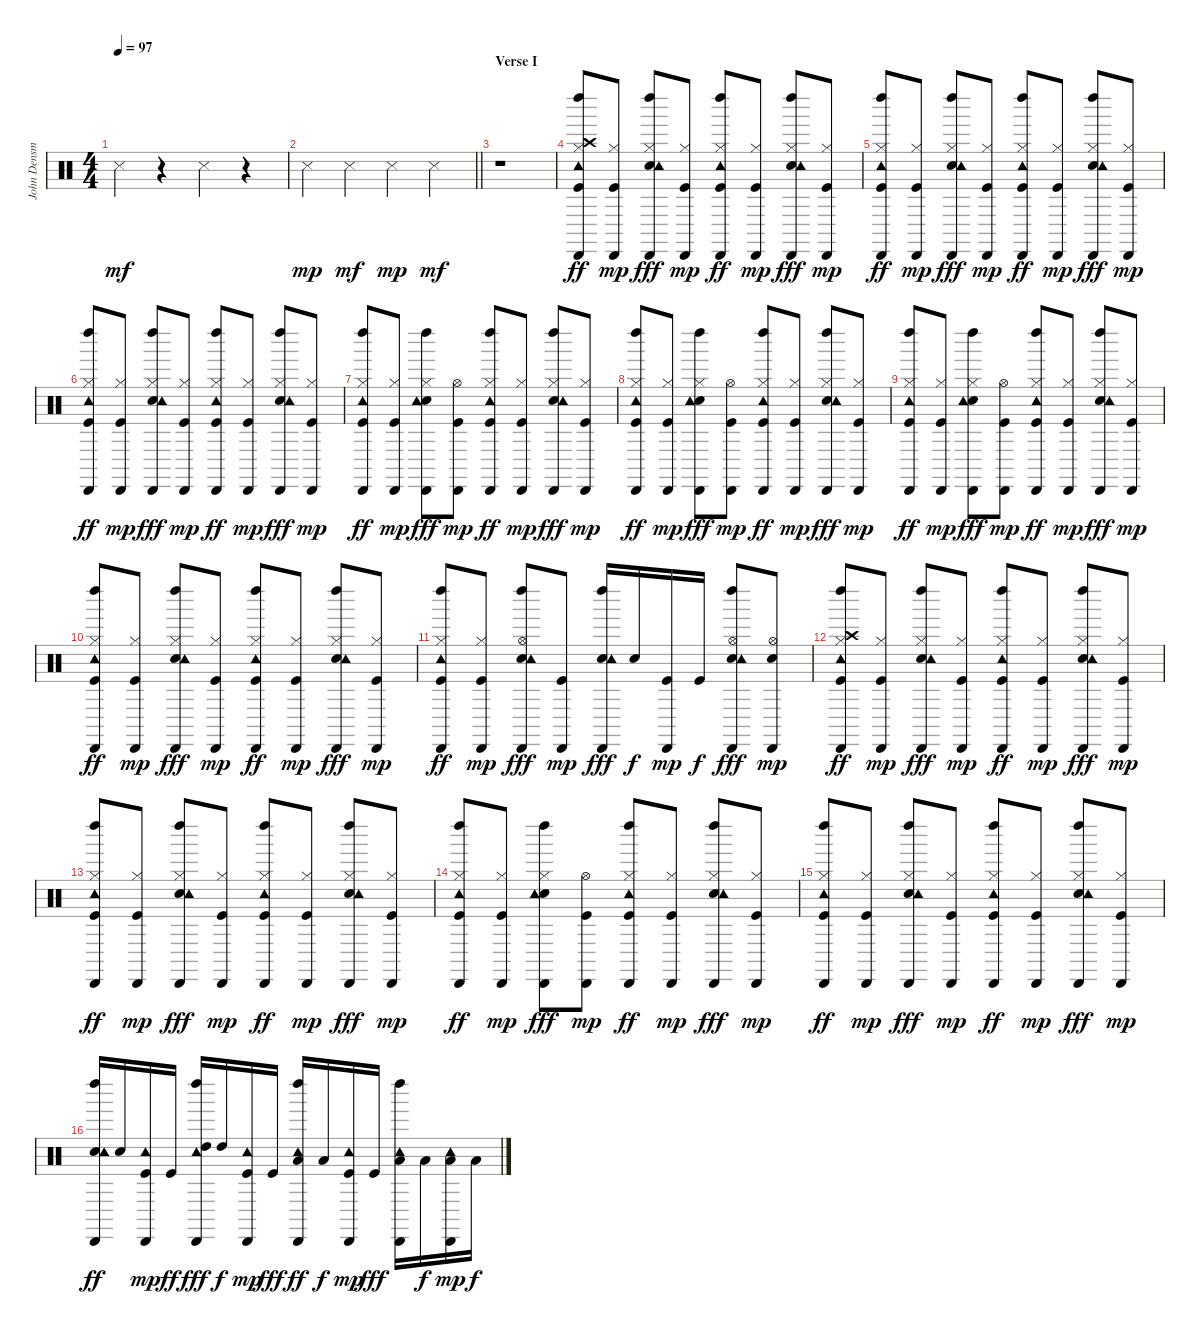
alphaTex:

\track ("John Densmore" "John Densm") {instrument percussion}
\staff {score}
\articulation defaults
\ts (4 4)
\tempo 97
\clef neutral
\ks c "Snare (side stick) 3".4{dy mf}
r.4 "Snare (side stick) 3".4 r.4 |
\barLineRight lightlight "Snare (side stick) 3".4{dy mp} "Snare (side stick) 3".4{dy mf} "Snare (side stick) 3".4{dy mp} "Snare (side stick) 3".4{dy mf}
|
\section ("" "Verse I")
r.1 |
("Kick (hit)" "Hi-Hat (closed)" "Crash high (hit)" "Tambourine (hit)" "Left Maraca (hit)" "Cabasa (hit)").8{dy ff} ("Kick (hit)" "Hi-Hat (closed)" "Cabasa (hit)").8{dy mp} ("Snare (hit) 2" "Hi-Hat (closed)" "Tambourine (hit)" "Left Maraca (hit)" "Cabasa (hit)").8{dy fff} ("Kick (hit)" "Hi-Hat (closed)" "Cabasa (hit)").8{dy mp} ("Kick (hit)" "Hi-Hat (closed)" "Tambourine (hit)" "Left Maraca (hit)" "Cabasa (hit)").8{dy ff} ("Kick (hit)" "Hi-Hat (closed)" "Cabasa (hit)").8{dy mp} ("Snare (hit) 2" "Hi-Hat (closed)" "Tambourine (hit)" "Left Maraca (hit)" "Cabasa (hit)").8{dy fff} ("Kick (hit)" "Hi-Hat (closed)" "Cabasa (hit)").8{dy mp} |
("Kick (hit)" "Hi-Hat (closed)" "Tambourine (hit)" "Left Maraca (hit)" "Cabasa (hit)").8{dy ff} ("Kick (hit)" "Hi-Hat (closed)" "Cabasa (hit)").8{dy mp} ("Snare (hit) 2" "Hi-Hat (closed)" "Tambourine (hit)" "Left Maraca (hit)" "Cabasa (hit)").8{dy fff} ("Kick (hit)" "Hi-Hat (closed)" "Cabasa (hit)").8{dy mp} ("Kick (hit)" "Hi-Hat (closed)" "Tambourine (hit)" "Left Maraca (hit)" "Cabasa (hit)").8{dy ff} ("Kick (hit)" "Hi-Hat (closed)" "Cabasa (hit)").8{dy mp} ("Snare (hit) 2" "Hi-Hat (closed)" "Tambourine (hit)" "Left Maraca (hit)" "Cabasa (hit)").8{dy fff} ("Kick (hit)" "Hi-Hat (closed)" "Cabasa (hit)").8{dy mp} |
("Kick (hit)" "Hi-Hat (closed)" "Tambourine (hit)" "Left Maraca (hit)" "Cabasa (hit)").8{dy ff} ("Kick (hit)" "Hi-Hat (closed)" "Cabasa (hit)").8{dy mp} ("Snare (hit) 2" "Hi-Hat (closed)" "Tambourine (hit)" "Left Maraca (hit)" "Cabasa (hit)").8{dy fff} ("Kick (hit)" "Hi-Hat (closed)" "Cabasa (hit)").8{dy mp} ("Kick (hit)" "Hi-Hat (closed)" "Tambourine (hit)" "Left Maraca (hit)" "Cabasa (hit)").8{dy ff} ("Kick (hit)" "Hi-Hat (closed)" "Cabasa (hit)").8{dy mp} ("Snare (hit) 2" "Hi-Hat (closed)" "Tambourine (hit)" "Left Maraca (hit)" "Cabasa (hit)").8{dy fff} ("Kick (hit)" "Hi-Hat (closed)" "Cabasa (hit)").8{dy mp} |
("Kick (hit)" "Hi-Hat (closed)" "Tambourine (hit)" "Left Maraca (hit)" "Cabasa (hit)").8{dy ff} ("Kick (hit)" "Hi-Hat (closed)" "Cabasa (hit)").8{dy mp} ("Snare (hit) 2" "Hi-Hat (closed)" "Tambourine (hit)" "Left Maraca (hit)" "Cabasa (hit)").8{dy fff} ("Kick (hit)" "Hi-Hat (open)" "Cabasa (hit)").8{dy mp} ("Kick (hit)" "Hi-Hat (closed)" "Tambourine (hit)" "Left Maraca (hit)" "Cabasa (hit)").8{dy ff} ("Kick (hit)" "Hi-Hat (closed)" "Cabasa (hit)").8{dy mp} ("Snare (hit) 2" "Hi-Hat (closed)" "Tambourine (hit)" "Left Maraca (hit)" "Cabasa (hit)").8{dy fff} ("Kick (hit)" "Hi-Hat (closed)" "Cabasa (hit)").8{dy mp} |
("Kick (hit)" "Hi-Hat (closed)" "Tambourine (hit)" "Left Maraca (hit)" "Cabasa (hit)").8{dy ff} ("Kick (hit)" "Hi-Hat (closed)" "Cabasa (hit)").8{dy mp} ("Snare (hit) 2" "Hi-Hat (closed)" "Tambourine (hit)" "Left Maraca (hit)" "Cabasa (hit)").8{dy fff} ("Kick (hit)" "Hi-Hat (open)" "Cabasa (hit)").8{dy mp} ("Kick (hit)" "Hi-Hat (closed)" "Tambourine (hit)" "Left Maraca (hit)" "Cabasa (hit)").8{dy ff} ("Kick (hit)" "Hi-Hat (closed)" "Cabasa (hit)").8{dy mp} ("Snare (hit) 2" "Hi-Hat (closed)" "Tambourine (hit)" "Left Maraca (hit)" "Cabasa (hit)").8{dy fff} ("Kick (hit)" "Hi-Hat (closed)" "Cabasa (hit)").8{dy mp} |
("Kick (hit)" "Hi-Hat (closed)" "Tambourine (hit)" "Left Maraca (hit)" "Cabasa (hit)").8{dy ff} ("Kick (hit)" "Hi-Hat (closed)" "Cabasa (hit)").8{dy mp} ("Snare (hit) 2" "Hi-Hat (closed)" "Tambourine (hit)" "Left Maraca (hit)" "Cabasa (hit)").8{dy fff} ("Kick (hit)" "Hi-Hat (open)" "Cabasa (hit)").8{dy mp} ("Kick (hit)" "Hi-Hat (closed)" "Tambourine (hit)" "Left Maraca (hit)" "Cabasa (hit)").8{dy ff} ("Kick (hit)" "Hi-Hat (closed)" "Cabasa (hit)").8{dy mp} ("Snare (hit) 2" "Hi-Hat (closed)" "Tambourine (hit)" "Left Maraca (hit)" "Cabasa (hit)").8{dy fff} ("Kick (hit)" "Hi-Hat (closed)" "Cabasa (hit)").8{dy mp} |
("Kick (hit)" "Hi-Hat (closed)" "Tambourine (hit)" "Left Maraca (hit)" "Cabasa (hit)").8{dy ff} ("Kick (hit)" "Hi-Hat (closed)" "Cabasa (hit)").8{dy mp} ("Snare (hit) 2" "Hi-Hat (closed)" "Tambourine (hit)" "Left Maraca (hit)" "Cabasa (hit)").8{dy fff} ("Kick (hit)" "Hi-Hat (closed)" "Cabasa (hit)").8{dy mp} ("Kick (hit)" "Hi-Hat (closed)" "Tambourine (hit)" "Left Maraca (hit)" "Cabasa (hit)").8{dy ff} ("Kick (hit)" "Hi-Hat (closed)" "Cabasa (hit)").8{dy mp} ("Snare (hit) 2" "Hi-Hat (closed)" "Tambourine (hit)" "Left Maraca (hit)" "Cabasa (hit)").8{dy fff} ("Kick (hit)" "Hi-Hat (closed)" "Cabasa (hit)").8{dy mp} |
("Kick (hit)" "Hi-Hat (closed)" "Tambourine (hit)" "Left Maraca (hit)" "Cabasa (hit)").8{dy ff} ("Kick (hit)" "Hi-Hat (closed)" "Cabasa (hit)").8{dy mp} ("Snare (hit) 2" "Hi-Hat (open)" "Tambourine (hit)" "Left Maraca (hit)" "Cabasa (hit)").8{dy fff} ("Kick (hit)" "Cabasa (hit)").8{dy mp} ("Snare (hit) 2" "Tambourine (hit)" "Left Maraca (hit)" "Cabasa (hit)").16{dy fff} "Snare (hit) 2".16{dy f} ("Kick (hit)" "Cabasa (hit)").16{dy mp} "Kick (hit)".16{dy f} ("Snare (hit) 2" "Hi-Hat (open)" "Tambourine (hit)" "Left Maraca (hit)" "Cabasa (hit)").8{dy fff} ("Snare (hit) 2" "Hi-Hat (open)" "Cabasa (hit)").8{dy mp} |
("Kick (hit)" "Hi-Hat (closed)" "Crash high (hit)" "Tambourine (hit)" "Left Maraca (hit)" "Cabasa (hit)").8{dy ff} ("Kick (hit)" "Hi-Hat (closed)" "Cabasa (hit)").8{dy mp} ("Snare (hit) 2" "Hi-Hat (closed)" "Tambourine (hit)" "Left Maraca (hit)" "Cabasa (hit)").8{dy fff} ("Kick (hit)" "Hi-Hat (closed)" "Cabasa (hit)").8{dy mp} ("Kick (hit)" "Hi-Hat (closed)" "Tambourine (hit)" "Left Maraca (hit)" "Cabasa (hit)").8{dy ff} ("Kick (hit)" "Hi-Hat (closed)" "Cabasa (hit)").8{dy mp} ("Snare (hit) 2" "Hi-Hat (closed)" "Tambourine (hit)" "Left Maraca (hit)" "Cabasa (hit)").8{dy fff} ("Kick (hit)" "Hi-Hat (closed)" "Cabasa (hit)").8{dy mp} |
("Kick (hit)" "Hi-Hat (closed)" "Tambourine (hit)" "Left Maraca (hit)" "Cabasa (hit)").8{dy ff} ("Kick (hit)" "Hi-Hat (closed)" "Cabasa (hit)").8{dy mp} ("Snare (hit) 2" "Hi-Hat (closed)" "Tambourine (hit)" "Left Maraca (hit)" "Cabasa (hit)").8{dy fff} ("Kick (hit)" "Hi-Hat (closed)" "Cabasa (hit)").8{dy mp} ("Kick (hit)" "Hi-Hat (closed)" "Tambourine (hit)" "Left Maraca (hit)" "Cabasa (hit)").8{dy ff} ("Kick (hit)" "Hi-Hat (closed)" "Cabasa (hit)").8{dy mp} ("Snare (hit) 2" "Hi-Hat (closed)" "Tambourine (hit)" "Left Maraca (hit)" "Cabasa (hit)").8{dy fff} ("Kick (hit)" "Hi-Hat (closed)" "Cabasa (hit)").8{dy mp} |
("Kick (hit)" "Hi-Hat (closed)" "Tambourine (hit)" "Left Maraca (hit)" "Cabasa (hit)").8{dy ff} ("Kick (hit)" "Hi-Hat (closed)" "Cabasa (hit)").8{dy mp} ("Snare (hit) 2" "Hi-Hat (closed)" "Tambourine (hit)" "Left Maraca (hit)" "Cabasa (hit)").8{dy fff} ("Kick (hit)" "Hi-Hat (open)" "Cabasa (hit)").8{dy mp} ("Kick (hit)" "Hi-Hat (closed)" "Tambourine (hit)" "Left Maraca (hit)" "Cabasa (hit)").8{dy ff} ("Kick (hit)" "Hi-Hat (closed)" "Cabasa (hit)").8{dy mp} ("Snare (hit) 2" "Hi-Hat (closed)" "Tambourine (hit)" "Left Maraca (hit)" "Cabasa (hit)").8{dy fff} ("Kick (hit)" "Hi-Hat (closed)" "Cabasa (hit)").8{dy mp} |
("Kick (hit)" "Hi-Hat (closed)" "Tambourine (hit)" "Left Maraca (hit)" "Cabasa (hit)").8{dy ff} ("Kick (hit)" "Hi-Hat (closed)" "Cabasa (hit)").8{dy mp} ("Snare (hit) 2" "Hi-Hat (closed)" "Tambourine (hit)" "Left Maraca (hit)" "Cabasa (hit)").8{dy fff} ("Kick (hit)" "Hi-Hat (closed)" "Cabasa (hit)").8{dy mp} ("Kick (hit)" "Hi-Hat (closed)" "Tambourine (hit)" "Left Maraca (hit)" "Cabasa (hit)").8{dy ff} ("Kick (hit)" "Hi-Hat (closed)" "Cabasa (hit)").8{dy mp} ("Snare (hit) 2" "Hi-Hat (closed)" "Tambourine (hit)" "Left Maraca (hit)" "Cabasa (hit)").8{dy fff} ("Kick (hit)" "Hi-Hat (closed)" "Cabasa (hit)").8{dy mp} |
("Snare (hit) 2" "Tambourine (hit)" "Left Maraca (hit)" "Cabasa (hit)").16{dy ff} "Snare (hit) 2".16 ("Kick (hit)" "Tambourine (hit)" "Cabasa (hit)").16{dy mp} "Kick (hit)".16{dy ff} ("High Tom (hit)" "Tambourine (hit)" "Left Maraca (hit)" "Cabasa (hit)").16{dy fff} "High Tom (hit)".16{dy f} ("Kick (hit)" "Tambourine (hit)" "Cabasa (hit)").16{dy mp} "Kick (hit)".16{dy fff} ("Low Tom (hit)" "Tambourine (hit)" "Left Maraca (hit)" "Cabasa (hit)").16{dy ff} "Low Tom (hit)".16{dy f} ("Kick (hit)" "Tambourine (hit)" "Cabasa (hit)").16{dy mp} "Kick (hit)".16{dy fff} ("Low Floor Tom (hit)" "Tambourine (hit)" "Left Maraca (hit)" "Cabasa (hit)").16 "Low Floor Tom (hit)".16{dy f} ("Low Floor Tom (hit)" "Tambourine (hit)" "Cabasa (hit)").16{dy mp} "Low Floor Tom (hit)".16{dy f}
